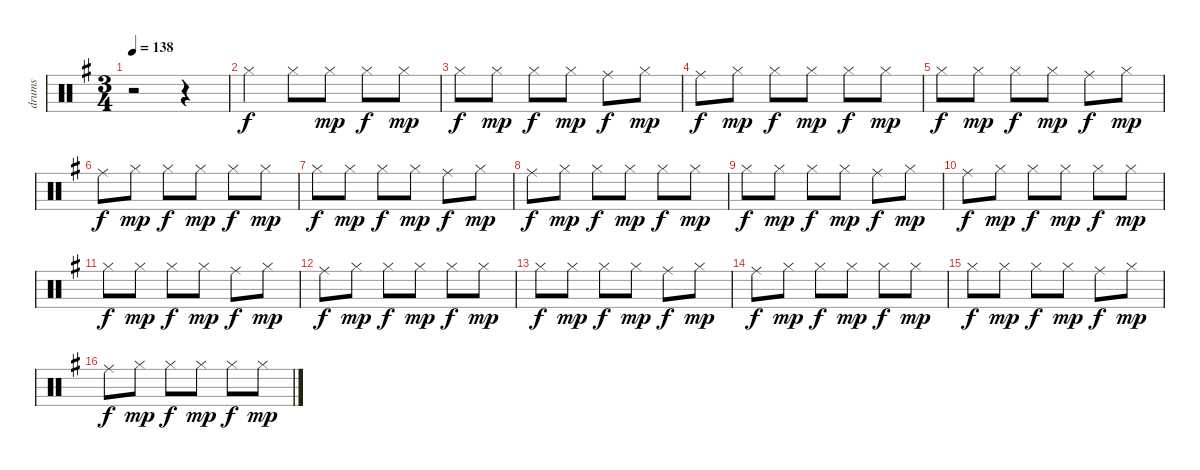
\track ("drums" "drums") {instrument percussion}
\staff {score}
\articulation defaults
\ts (3 4)
\tempo 138
\clef neutral
\ks eminor
r.2{dy f} r.4 |
"Hi-Hat (closed)".4 "Hi-Hat (closed)".8 "Hi-Hat (closed)".8{dy mp} "Hi-Hat (closed)".8{dy f} "Hi-Hat (closed)".8{dy mp} |
"Hi-Hat (closed)".8{dy f} "Hi-Hat (closed)".8{dy mp} "Hi-Hat (closed)".8{dy f} "Hi-Hat (closed)".8{dy mp} "Ride (middle)".8{dy f} "Hi-Hat (closed)".8{dy mp} |
"Ride (middle)".8{dy f} "Hi-Hat (closed)".8{dy mp} "Hi-Hat (closed)".8{dy f} "Hi-Hat (closed)".8{dy mp} "Hi-Hat (closed)".8{dy f} "Hi-Hat (closed)".8{dy mp} |
"Hi-Hat (closed)".8{dy f} "Hi-Hat (closed)".8{dy mp} "Hi-Hat (closed)".8{dy f} "Hi-Hat (closed)".8{dy mp} "Ride (middle)".8{dy f} "Hi-Hat (closed)".8{dy mp} |
"Ride (middle)".8{dy f} "Hi-Hat (closed)".8{dy mp} "Hi-Hat (closed)".8{dy f} "Hi-Hat (closed)".8{dy mp} "Hi-Hat (closed)".8{dy f} "Hi-Hat (closed)".8{dy mp} |
"Hi-Hat (closed)".8{dy f} "Hi-Hat (closed)".8{dy mp} "Hi-Hat (closed)".8{dy f} "Hi-Hat (closed)".8{dy mp} "Ride (middle)".8{dy f} "Hi-Hat (closed)".8{dy mp} |
"Ride (middle)".8{dy f} "Hi-Hat (closed)".8{dy mp} "Hi-Hat (closed)".8{dy f} "Hi-Hat (closed)".8{dy mp} "Hi-Hat (closed)".8{dy f} "Hi-Hat (closed)".8{dy mp} |
"Hi-Hat (closed)".8{dy f} "Hi-Hat (closed)".8{dy mp} "Hi-Hat (closed)".8{dy f} "Hi-Hat (closed)".8{dy mp} "Ride (middle)".8{dy f} "Hi-Hat (closed)".8{dy mp} |
"Ride (middle)".8{dy f} "Hi-Hat (closed)".8{dy mp} "Hi-Hat (closed)".8{dy f} "Hi-Hat (closed)".8{dy mp} "Hi-Hat (closed)".8{dy f} "Hi-Hat (closed)".8{dy mp} |
"Hi-Hat (closed)".8{dy f} "Hi-Hat (closed)".8{dy mp} "Hi-Hat (closed)".8{dy f} "Hi-Hat (closed)".8{dy mp} "Ride (middle)".8{dy f} "Hi-Hat (closed)".8{dy mp} |
"Ride (middle)".8{dy f} "Hi-Hat (closed)".8{dy mp} "Hi-Hat (closed)".8{dy f} "Hi-Hat (closed)".8{dy mp} "Hi-Hat (closed)".8{dy f} "Hi-Hat (closed)".8{dy mp} |
"Hi-Hat (closed)".8{dy f} "Hi-Hat (closed)".8{dy mp} "Hi-Hat (closed)".8{dy f} "Hi-Hat (closed)".8{dy mp} "Ride (middle)".8{dy f} "Hi-Hat (closed)".8{dy mp} |
"Ride (middle)".8{dy f} "Hi-Hat (closed)".8{dy mp} "Hi-Hat (closed)".8{dy f} "Hi-Hat (closed)".8{dy mp} "Hi-Hat (closed)".8{dy f} "Hi-Hat (closed)".8{dy mp} |
"Hi-Hat (closed)".8{dy f} "Hi-Hat (closed)".8{dy mp} "Hi-Hat (closed)".8{dy f} "Hi-Hat (closed)".8{dy mp} "Ride (middle)".8{dy f} "Hi-Hat (closed)".8{dy mp} |
"Ride (middle)".8{dy f} "Hi-Hat (closed)".8{dy mp} "Hi-Hat (closed)".8{dy f} "Hi-Hat (closed)".8{dy mp} "Hi-Hat (closed)".8{dy f} "Hi-Hat (closed)".8{dy mp}
